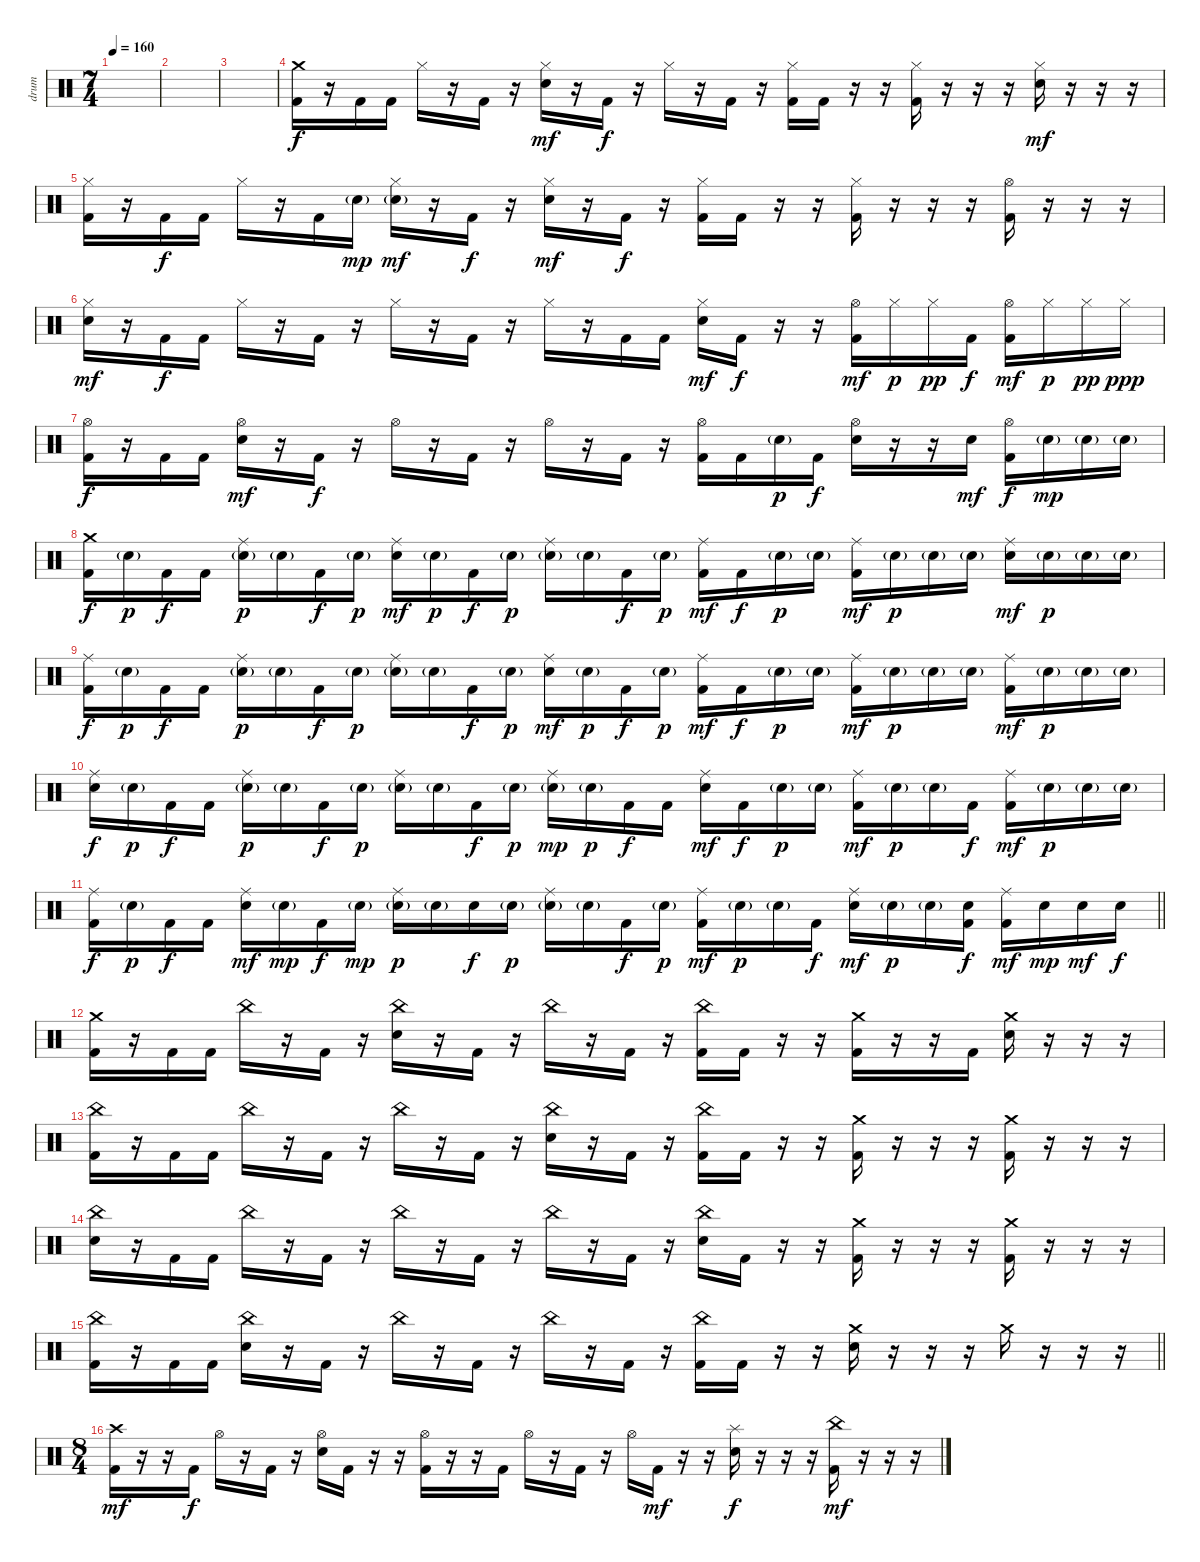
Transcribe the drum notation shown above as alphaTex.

\track ("drum" "drum") {instrument percussion}
\staff {score}
\articulation defaults
\ts (7 4)
\tempo 160
\clef neutral
\ks c
|
|
|
("Crash medium (hit)" "Kick (hit) 2").16 r.16 "Kick (hit) 2".16 "Kick (hit) 2".16 "Hi-Hat (closed)".16 r.16 "Kick (hit) 2".16 r.16 ("Hi-Hat (closed)" "Electric Snare (hit)").16{dy mf} r.16 "Kick (hit) 2".16{dy f} r.16 "Hi-Hat (closed)".16 r.16 "Kick (hit) 2".16 r.16 ("Hi-Hat (closed)" "Kick (hit) 2").16 "Kick (hit) 2".16 r.16 r.16 ("Hi-Hat (closed)" "Kick (hit) 2").16 r.16 r.16 r.16 ("Hi-Hat (closed)" "Electric Snare (hit)").16{dy mf} r.16 r.16 r.16 |
("Hi-Hat (closed)" "Kick (hit) 2").16 r.16 "Kick (hit) 2".16{dy f} "Kick (hit) 2".16 "Hi-Hat (closed)".16 r.16 "Kick (hit) 2".16 "Electric Snare (hit)"{g}.16{dy mp} ("Hi-Hat (closed)" "Electric Snare (hit)"{g}).16{dy mf} r.16 "Kick (hit) 2".16{dy f} r.16 ("Hi-Hat (closed)" "Electric Snare (hit)").16{dy mf} r.16 "Kick (hit) 2".16{dy f} r.16 ("Hi-Hat (closed)" "Kick (hit) 2").16 "Kick (hit) 2".16 r.16 r.16 ("Hi-Hat (closed)" "Kick (hit) 2").16 r.16 r.16 r.16 ("Hi-Hat (open)" "Kick (hit) 2").16 r.16 r.16 r.16 |
("Hi-Hat (closed)" "Electric Snare (hit)").16{dy mf} r.16 "Kick (hit) 2".16{dy f} "Kick (hit) 2".16 "Hi-Hat (closed)".16 r.16 "Kick (hit) 2".16 r.16 "Hi-Hat (closed)".16 r.16 "Kick (hit) 2".16 r.16 "Hi-Hat (closed)".16 r.16 "Kick (hit) 2".16 "Kick (hit) 2".16 ("Hi-Hat (closed)" "Electric Snare (hit)").16{dy mf} "Kick (hit) 2".16{dy f} r.16 r.16 ("Hi-Hat (open)" "Kick (hit) 2").16{dy mf} "Hi-Hat (closed)".16{dy p} "Hi-Hat (closed)".16{dy pp} "Kick (hit) 2".16{dy f} ("Hi-Hat (open)" "Kick (hit) 2").16{dy mf} "Hi-Hat (closed)".16{dy p} "Hi-Hat (closed)".16{dy pp} "Hi-Hat (closed)".16{dy ppp} |
("Hi-Hat (open)" "Kick (hit) 2").16{dy f} r.16 "Kick (hit) 2".16 "Kick (hit) 2".16 ("Hi-Hat (open)" "Electric Snare (hit)").16{dy mf} r.16 "Kick (hit) 2".16{dy f} r.16 "Hi-Hat (open)".16 r.16 "Kick (hit) 2".16 r.16 "Hi-Hat (open)".16 r.16 "Kick (hit) 2".16 r.16 ("Hi-Hat (open)" "Kick (hit) 2").16 "Kick (hit) 2".16 "Electric Snare (hit)"{g}.16{dy p} "Kick (hit) 2".16{dy f} ("Hi-Hat (open)" "Electric Snare (hit)").16 r.16 r.16 "Electric Snare (hit)".16{dy mf} ("Hi-Hat (open)" "Kick (hit) 2").16{dy f} "Electric Snare (hit)"{g}.16{dy mp} "Electric Snare (hit)"{g}.16 "Electric Snare (hit)"{g}.16 |
("Crash medium (hit)" "Kick (hit) 2").16{dy f} "Electric Snare (hit)"{g}.16{dy p} "Kick (hit) 2".16{dy f} "Kick (hit) 2".16 ("Ride (middle)" "Electric Snare (hit)"{g}).16{dy p} "Electric Snare (hit)"{g}.16 "Kick (hit) 2".16{dy f} "Electric Snare (hit)"{g}.16{dy p} ("Ride (middle)" "Electric Snare (hit)").16{dy mf} "Electric Snare (hit)"{g}.16{dy p} "Kick (hit) 2".16{dy f} "Electric Snare (hit)"{g}.16{dy p} ("Ride (middle)" "Electric Snare (hit)"{g}).16 "Electric Snare (hit)"{g}.16 "Kick (hit) 2".16{dy f} "Electric Snare (hit)"{g}.16{dy p} ("Ride (middle)" "Kick (hit) 2").16{dy mf} "Kick (hit) 2".16{dy f} "Electric Snare (hit)"{g}.16{dy p} "Electric Snare (hit)"{g}.16 ("Ride (middle)" "Kick (hit) 2").16{dy mf} "Electric Snare (hit)"{g}.16{dy p} "Electric Snare (hit)"{g}.16 "Electric Snare (hit)"{g}.16 ("Ride (middle)" "Electric Snare (hit)").16{dy mf} "Electric Snare (hit)"{g}.16{dy p} "Electric Snare (hit)"{g}.16 "Electric Snare (hit)"{g}.16 |
("Ride (middle)" "Kick (hit) 2").16{dy f} "Electric Snare (hit)"{g}.16{dy p} "Kick (hit) 2".16{dy f} "Kick (hit) 2".16 ("Ride (middle)" "Electric Snare (hit)"{g}).16{dy p} "Electric Snare (hit)"{g}.16 "Kick (hit) 2".16{dy f} "Electric Snare (hit)"{g}.16{dy p} ("Ride (middle)" "Electric Snare (hit)"{g}).16 "Electric Snare (hit)"{g}.16 "Kick (hit) 2".16{dy f} "Electric Snare (hit)"{g}.16{dy p} ("Ride (middle)" "Electric Snare (hit)").16{dy mf} "Electric Snare (hit)"{g}.16{dy p} "Kick (hit) 2".16{dy f} "Electric Snare (hit)"{g}.16{dy p} ("Ride (middle)" "Kick (hit) 2").16{dy mf} "Kick (hit) 2".16{dy f} "Electric Snare (hit)"{g}.16{dy p} "Electric Snare (hit)"{g}.16 ("Ride (middle)" "Kick (hit) 2").16{dy mf} "Electric Snare (hit)"{g}.16{dy p} "Electric Snare (hit)"{g}.16 "Electric Snare (hit)"{g}.16 ("Ride (middle)" "Kick (hit) 2").16{dy mf} "Electric Snare (hit)"{g}.16{dy p} "Electric Snare (hit)"{g}.16 "Electric Snare (hit)"{g}.16 |
("Ride (middle)" "Electric Snare (hit)").16{dy f} "Electric Snare (hit)"{g}.16{dy p} "Kick (hit) 2".16{dy f} "Kick (hit) 2".16 ("Ride (middle)" "Electric Snare (hit)"{g}).16{dy p} "Electric Snare (hit)"{g}.16 "Kick (hit) 2".16{dy f} "Electric Snare (hit)"{g}.16{dy p} ("Ride (middle)" "Electric Snare (hit)"{g}).16 "Electric Snare (hit)"{g}.16 "Kick (hit) 2".16{dy f} "Electric Snare (hit)"{g}.16{dy p} ("Ride (middle)" "Electric Snare (hit)"{g}).16{dy mp} "Electric Snare (hit)"{g}.16{dy p} "Kick (hit) 2".16{dy f} "Kick (hit) 2".16 ("Ride (middle)" "Electric Snare (hit)").16{dy mf} "Kick (hit) 2".16{dy f} "Electric Snare (hit)"{g}.16{dy p} "Electric Snare (hit)"{g}.16 ("Ride (middle)" "Kick (hit) 2").16{dy mf} "Electric Snare (hit)"{g}.16{dy p} "Electric Snare (hit)"{g}.16 "Kick (hit) 2".16{dy f} ("Ride (middle)" "Kick (hit) 2").16{dy mf} "Electric Snare (hit)"{g}.16{dy p} "Electric Snare (hit)"{g}.16 "Electric Snare (hit)"{g}.16 |
\barLineRight lightlight
("Ride (middle)" "Kick (hit) 2").16{dy f} "Electric Snare (hit)"{g}.16{dy p} "Kick (hit) 2".16{dy f} "Kick (hit) 2".16 ("Ride (middle)" "Electric Snare (hit)").16{dy mf} "Electric Snare (hit)"{g}.16{dy mp} "Kick (hit) 2".16{dy f} "Electric Snare (hit)"{g}.16{dy mp} ("Ride (middle)" "Electric Snare (hit)"{g}).16{dy p} "Electric Snare (hit)"{g}.16 "Electric Snare (hit)".16{dy f} "Electric Snare (hit)"{g}.16{dy p} ("Ride (middle)" "Electric Snare (hit)"{g}).16 "Electric Snare (hit)"{g}.16 "Kick (hit) 2".16{dy f} "Electric Snare (hit)"{g}.16{dy p} ("Ride (middle)" "Kick (hit) 2").16{dy mf} "Electric Snare (hit)"{g}.16{dy p} "Electric Snare (hit)"{g}.16 "Kick (hit) 2".16{dy f} ("Ride (middle)" "Electric Snare (hit)").16{dy mf} "Electric Snare (hit)"{g}.16{dy p} "Electric Snare (hit)"{g}.16 ("Electric Snare (hit)" "Kick (hit) 2").16{dy f} ("Ride (middle)" "Kick (hit) 2").16{dy mf} "Electric Snare (hit)".16{dy mp} "Electric Snare (hit)".16{dy mf} "Electric Snare (hit)".16{dy f} |
\section ("" "")
("Crash medium (hit)" "Kick (hit) 2").16 r.16 "Kick (hit) 2".16 "Kick (hit) 2".16 "China (hit)".16 r.16 "Kick (hit) 2".16 r.16 ("China (hit)" "Electric Snare (hit)").16 r.16 "Kick (hit) 2".16 r.16 "China (hit)".16 r.16 "Kick (hit) 2".16 r.16 ("China (hit)" "Kick (hit) 2").16 "Kick (hit) 2".16 r.16 r.16 ("Crash medium (hit)" "Kick (hit) 2").16 r.16 r.16 "Kick (hit) 2".16 ("Crash medium (hit)" "Electric Snare (hit)").16 r.16 r.16 r.16 |
("China (hit)" "Kick (hit) 2").16 r.16 "Kick (hit) 2".16 "Kick (hit) 2".16 "China (hit)".16 r.16 "Kick (hit) 2".16 r.16 "China (hit)".16 r.16 "Kick (hit) 2".16 r.16 ("China (hit)" "Electric Snare (hit)").16 r.16 "Kick (hit) 2".16 r.16 ("China (hit)" "Kick (hit) 2").16 "Kick (hit) 2".16 r.16 r.16 ("Crash medium (hit)" "Kick (hit) 2").16 r.16 r.16 r.16 ("Crash medium (hit)" "Kick (hit) 2").16 r.16 r.16 r.16 |
("China (hit)" "Electric Snare (hit)").16 r.16 "Kick (hit) 2".16 "Kick (hit) 2".16 "China (hit)".16 r.16 "Kick (hit) 2".16 r.16 "China (hit)".16 r.16 "Kick (hit) 2".16 r.16 "China (hit)".16 r.16 "Kick (hit) 2".16 r.16 ("China (hit)" "Electric Snare (hit)").16 "Kick (hit) 2".16 r.16 r.16 ("Crash medium (hit)" "Kick (hit) 2").16 r.16 r.16 r.16 ("Crash medium (hit)" "Kick (hit) 2").16 r.16 r.16 r.16 |
\barLineRight lightlight
("China (hit)" "Kick (hit) 2").16 r.16 "Kick (hit) 2".16 "Kick (hit) 2".16 ("China (hit)" "Electric Snare (hit)").16 r.16 "Kick (hit) 2".16 r.16 "China (hit)".16 r.16 "Kick (hit) 2".16 r.16 "China (hit)".16 r.16 "Kick (hit) 2".16 r.16 ("China (hit)" "Kick (hit) 2").16 "Kick (hit) 2".16 r.16 r.16 ("Crash medium (hit)" "Electric Snare (hit)").16 r.16 r.16 r.16 "Crash medium (hit)".16 r.16 r.16 r.16 |
\ts (8 4)
\section ("" "")
("Crash high (hit)" "Kick (hit) 2").16{dy mf} r.16 r.16 "Kick (hit) 2".16{dy f} "Hi-Hat (open)".16 r.16 "Kick (hit) 2".16 r.16 ("Hi-Hat (open)" "Electric Snare (hit)").16 "Kick (hit) 2".16 r.16 r.16 ("Hi-Hat (open)" "Kick (hit) 2").16 r.16 r.16 "Kick (hit) 2".16 "Hi-Hat (open)".16 r.16 "Kick (hit) 2".16 r.16 "Hi-Hat (open)".16 "Kick (hit) 2".16{dy mf} r.16 r.16 ("Splash (hit)" "Electric Snare (hit)").16{dy f} r.16 r.16 r.16 ("China (hit)" "Kick (hit) 2").16{dy mf} r.16 r.16 r.16
